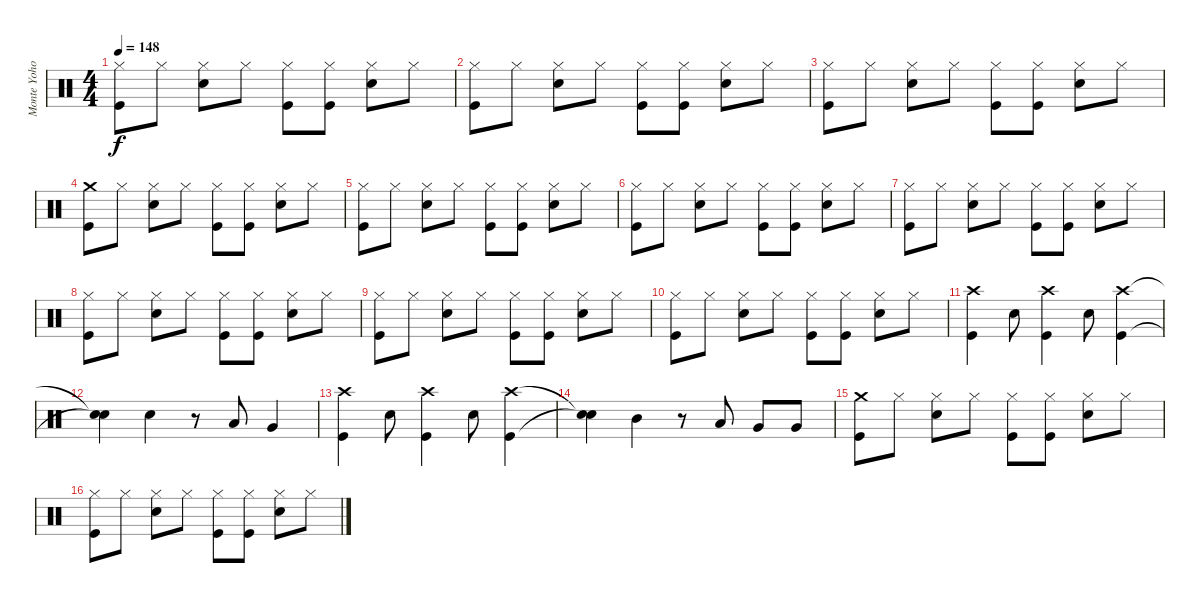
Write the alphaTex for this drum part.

\track ("Monte Yoho Drums" "Monte Yoho") {instrument percussion}
\staff {score}
\articulation defaults
\ts (4 4)
\tempo 148
\clef neutral
\ks c
("Hi-Hat (closed)" "Kick (hit)").8{dy f} "Hi-Hat (closed)".8 ("Hi-Hat (closed)" "Snare (hit) 2").8 "Hi-Hat (closed)".8 ("Hi-Hat (closed)" "Kick (hit)").8 ("Hi-Hat (closed)" "Kick (hit)").8 ("Hi-Hat (closed)" "Snare (hit) 2").8 "Hi-Hat (closed)".8 |
("Hi-Hat (closed)" "Kick (hit)").8 "Hi-Hat (closed)".8 ("Hi-Hat (closed)" "Snare (hit) 2").8 "Hi-Hat (closed)".8 ("Hi-Hat (closed)" "Kick (hit)").8 ("Hi-Hat (closed)" "Kick (hit)").8 ("Hi-Hat (closed)" "Snare (hit) 2").8 "Hi-Hat (closed)".8 |
("Hi-Hat (closed)" "Kick (hit)").8 "Hi-Hat (closed)".8 ("Hi-Hat (closed)" "Snare (hit) 2").8 "Hi-Hat (closed)".8 ("Hi-Hat (closed)" "Kick (hit)").8 ("Hi-Hat (closed)" "Kick (hit)").8 ("Hi-Hat (closed)" "Snare (hit) 2").8 "Hi-Hat (closed)".8 |
("Crash medium (hit)" "Kick (hit)").8 "Hi-Hat (closed)".8 ("Hi-Hat (closed)" "Snare (hit) 2").8 "Hi-Hat (closed)".8 ("Hi-Hat (closed)" "Kick (hit)").8 ("Hi-Hat (closed)" "Kick (hit)").8 ("Hi-Hat (closed)" "Snare (hit) 2").8 "Hi-Hat (closed)".8 |
("Hi-Hat (closed)" "Kick (hit)").8 "Hi-Hat (closed)".8 ("Hi-Hat (closed)" "Snare (hit) 2").8 "Hi-Hat (closed)".8 ("Hi-Hat (closed)" "Kick (hit)").8 ("Hi-Hat (closed)" "Kick (hit)").8 ("Hi-Hat (closed)" "Snare (hit) 2").8 "Hi-Hat (closed)".8 |
("Hi-Hat (closed)" "Kick (hit)").8 "Hi-Hat (closed)".8 ("Hi-Hat (closed)" "Snare (hit) 2").8 "Hi-Hat (closed)".8 ("Hi-Hat (closed)" "Kick (hit)").8 ("Hi-Hat (closed)" "Kick (hit)").8 ("Hi-Hat (closed)" "Snare (hit) 2").8 "Hi-Hat (closed)".8 |
("Hi-Hat (closed)" "Kick (hit)").8 "Hi-Hat (closed)".8 ("Hi-Hat (closed)" "Snare (hit) 2").8 "Hi-Hat (closed)".8 ("Hi-Hat (closed)" "Kick (hit)").8 ("Hi-Hat (closed)" "Kick (hit)").8 ("Hi-Hat (closed)" "Snare (hit) 2").8 "Hi-Hat (closed)".8 |
("Hi-Hat (closed)" "Kick (hit)").8 "Hi-Hat (closed)".8 ("Hi-Hat (closed)" "Snare (hit) 2").8 "Hi-Hat (closed)".8 ("Hi-Hat (closed)" "Kick (hit)").8 ("Hi-Hat (closed)" "Kick (hit)").8 ("Hi-Hat (closed)" "Snare (hit) 2").8 "Hi-Hat (closed)".8 |
("Hi-Hat (closed)" "Kick (hit)").8 "Hi-Hat (closed)".8 ("Hi-Hat (closed)" "Snare (hit) 2").8 "Hi-Hat (closed)".8 ("Hi-Hat (closed)" "Kick (hit)").8 ("Hi-Hat (closed)" "Kick (hit)").8 ("Hi-Hat (closed)" "Snare (hit) 2").8 "Hi-Hat (closed)".8 |
("Hi-Hat (closed)" "Kick (hit)").8 "Hi-Hat (closed)".8 ("Hi-Hat (closed)" "Snare (hit) 2").8 "Hi-Hat (closed)".8 ("Hi-Hat (closed)" "Kick (hit)").8 ("Hi-Hat (closed)" "Kick (hit)").8 ("Hi-Hat (closed)" "Snare (hit) 2").8 "Hi-Hat (closed)".8 |
("Crash high (hit)" "Kick (hit)").4 "Snare (hit) 2".8 ("Crash high (hit)" "Kick (hit)").4 "Snare (hit) 2".8 ("Crash high (hit)" "Kick (hit)").4 |
("Snare (hit)"{t} "Snare (hit)"{t}).4 "Snare (hit) 2".4 r.8 "Low Tom (hit)".8 "Very Low Tom (hit)".4 |
("Crash high (hit)" "Kick (hit)").4 "Snare (hit) 2".8 ("Crash high (hit)" "Kick (hit)").4 "Snare (hit) 2".8 ("Crash high (hit)" "Kick (hit)").4 |
("Snare (hit)"{t} "Snare (hit)"{t}).4 "Mid Tom (hit)".4 r.8 "Low Tom (hit)".8 "Very Low Tom (hit)".8 "Very Low Tom (hit)".8 |
("Crash medium (hit)" "Kick (hit)").8 "Hi-Hat (closed)".8 ("Hi-Hat (closed)" "Snare (hit) 2").8 "Hi-Hat (closed)".8 ("Hi-Hat (closed)" "Kick (hit)").8 ("Hi-Hat (closed)" "Kick (hit)").8 ("Hi-Hat (closed)" "Snare (hit) 2").8 "Hi-Hat (closed)".8 |
("Hi-Hat (closed)" "Kick (hit)").8 "Hi-Hat (closed)".8 ("Hi-Hat (closed)" "Snare (hit) 2").8 "Hi-Hat (closed)".8 ("Hi-Hat (closed)" "Kick (hit)").8 ("Hi-Hat (closed)" "Kick (hit)").8 ("Hi-Hat (closed)" "Snare (hit) 2").8 "Hi-Hat (closed)".8
